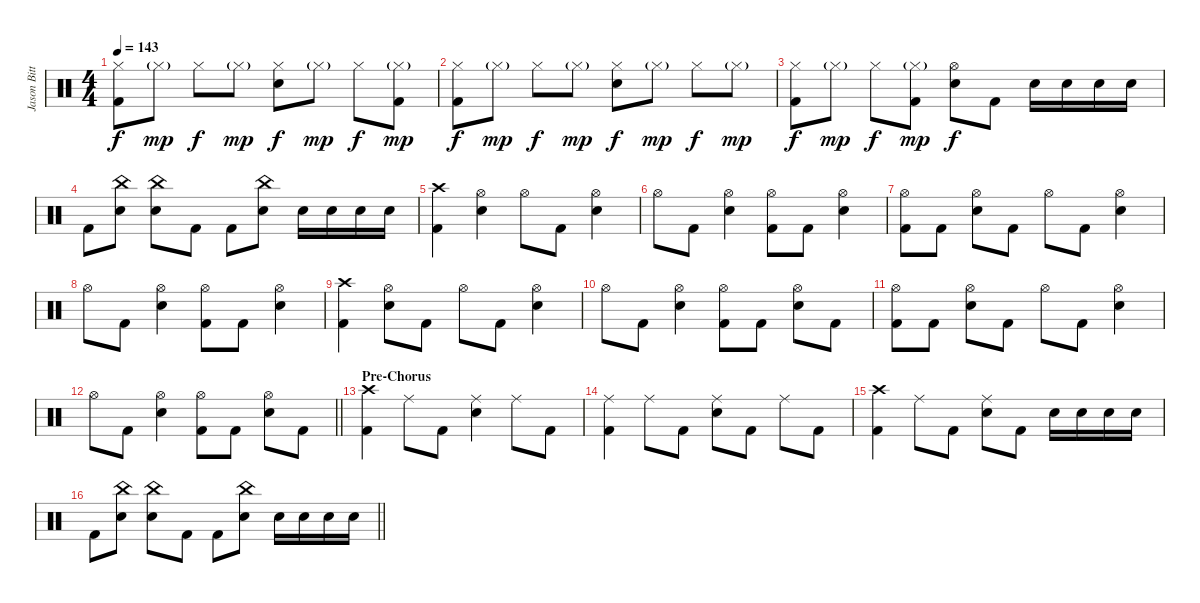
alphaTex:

\track ("Jason Bittner" "Jason Bitt") {instrument percussion}
\staff {score}
\articulation defaults
\ts (4 4)
\tempo 143
\clef neutral
\ks c
("Hi-Hat (closed)" "Kick (hit) 2").8{dy f} "Hi-Hat (closed)"{g}.8{dy mp} "Hi-Hat (closed)".8{dy f} "Hi-Hat (closed)"{g}.8{dy mp} ("Hi-Hat (closed)" "Electric Snare (hit)").8{dy f} "Hi-Hat (closed)"{g}.8{dy mp} "Hi-Hat (closed)".8{dy f} ("Hi-Hat (closed)"{g} "Kick (hit) 2").8{dy mp} |
("Hi-Hat (closed)" "Kick (hit) 2").8{dy f} "Hi-Hat (closed)"{g}.8{dy mp} "Hi-Hat (closed)".8{dy f} "Hi-Hat (closed)"{g}.8{dy mp} ("Hi-Hat (closed)" "Electric Snare (hit)").8{dy f} "Hi-Hat (closed)"{g}.8{dy mp} "Hi-Hat (closed)".8{dy f} "Hi-Hat (closed)"{g}.8{dy mp} |
("Hi-Hat (closed)" "Kick (hit) 2").8{dy f} "Hi-Hat (closed)"{g}.8{dy mp} "Hi-Hat (closed)".8{dy f} ("Hi-Hat (closed)"{g} "Kick (hit) 2").8{dy mp} ("Hi-Hat (open)" "Electric Snare (hit)").8{dy f} "Kick (hit) 2".8 "Electric Snare (hit)".16 "Electric Snare (hit)".16 "Electric Snare (hit)".16 "Electric Snare (hit)".16 |
"Kick (hit) 2".8 ("China (hit)" "Electric Snare (hit)").8 ("China (hit)" "Electric Snare (hit)").8 "Kick (hit) 2".8 "Kick (hit) 2".8 ("China (hit)" "Electric Snare (hit)").8 "Electric Snare (hit)".16 "Electric Snare (hit)".16 "Electric Snare (hit)".16 "Electric Snare (hit)".16 |
("Crash high (hit)" "Kick (hit) 2").4 ("Hi-Hat (open)" "Electric Snare (hit)").4 "Hi-Hat (open)".8 "Kick (hit) 2".8 ("Hi-Hat (open)" "Electric Snare (hit)").4 |
"Hi-Hat (open)".8 "Kick (hit) 2".8 ("Hi-Hat (open)" "Electric Snare (hit)").4 ("Hi-Hat (open)" "Kick (hit) 2").8 "Kick (hit) 2".8 ("Hi-Hat (open)" "Electric Snare (hit)").4 |
("Hi-Hat (open)" "Kick (hit) 2").8 "Kick (hit) 2".8 ("Hi-Hat (open)" "Electric Snare (hit)").8 "Kick (hit) 2".8 "Hi-Hat (open)".8 "Kick (hit) 2".8 ("Hi-Hat (open)" "Electric Snare (hit)").4 |
"Hi-Hat (open)".8 "Kick (hit) 2".8 ("Hi-Hat (open)" "Electric Snare (hit)").4 ("Hi-Hat (open)" "Kick (hit) 2").8 "Kick (hit) 2".8 ("Hi-Hat (open)" "Electric Snare (hit)").4 |
("Crash high (hit)" "Kick (hit) 2").4 ("Hi-Hat (open)" "Electric Snare (hit)").8 "Kick (hit) 2".8 "Hi-Hat (open)".8 "Kick (hit) 2".8 ("Hi-Hat (open)" "Electric Snare (hit)").4 |
"Hi-Hat (open)".8 "Kick (hit) 2".8 ("Hi-Hat (open)" "Electric Snare (hit)").4 ("Hi-Hat (open)" "Kick (hit) 2").8 "Kick (hit) 2".8 ("Hi-Hat (open)" "Electric Snare (hit)").8 "Kick (hit) 2".8 |
("Hi-Hat (open)" "Kick (hit) 2").8 "Kick (hit) 2".8 ("Hi-Hat (open)" "Electric Snare (hit)").8 "Kick (hit) 2".8 "Hi-Hat (open)".8 "Kick (hit) 2".8 ("Hi-Hat (open)" "Electric Snare (hit)").4 |
\barLineRight lightlight "Hi-Hat (open)".8 "Kick (hit) 2".8
("Hi-Hat (open)" "Electric Snare (hit)").4 ("Hi-Hat (open)" "Kick (hit) 2").8 "Kick (hit) 2".8 ("Hi-Hat (open)" "Electric Snare (hit)").8 "Kick (hit) 2".8 |
\section ("" "Pre-Chorus")
("Crash high (hit)" "Kick (hit) 2").4 "Ride (middle)".8 "Kick (hit) 2".8 ("Ride (middle)" "Electric Snare (hit)").4 "Ride (middle)".8 "Kick (hit) 2".8 |
("Ride (middle)" "Kick (hit) 2").4 "Ride (middle)".8 "Kick (hit) 2".8 ("Ride (middle)" "Electric Snare (hit)").8 "Kick (hit) 2".8 "Ride (middle)".8 "Kick (hit) 2".8 |
("Crash high (hit)" "Kick (hit) 2").4 "Ride (middle)".8 "Kick (hit) 2".8 ("Ride (middle)" "Electric Snare (hit)").8 "Kick (hit) 2".8 "Electric Snare (hit)".16 "Electric Snare (hit)".16 "Electric Snare (hit)".16 "Electric Snare (hit)".16 |
\barLineRight lightlight "Kick (hit) 2".8
("China (hit)" "Electric Snare (hit)").8 ("China (hit)" "Electric Snare (hit)").8 "Kick (hit) 2".8 "Kick (hit) 2".8 ("China (hit)" "Electric Snare (hit)").8 "Electric Snare (hit)".16 "Electric Snare (hit)".16 "Electric Snare (hit)".16 "Electric Snare (hit)".16
